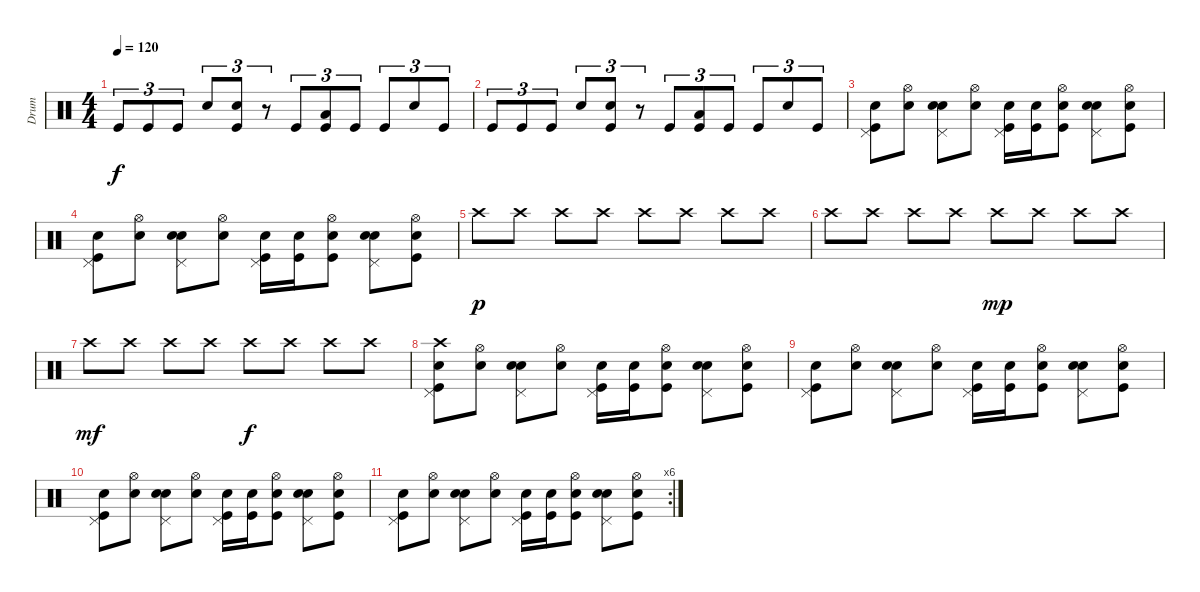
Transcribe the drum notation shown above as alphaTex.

\track ("Drum" "Drum") {instrument percussion}
\staff {score}
\articulation defaults
\ts (4 4)
\tempo 120
\clef neutral
\ks c "Kick (hit)".8{tu (3 2) dy f} "Kick (hit)".8{tu (3 2)} "Kick (hit)".8{tu (3 2)} "Electric Snare (hit)".8{tu (3 2)}
("Electric Snare (hit)" "Kick (hit)").8{tu (3 2)} r.8{tu (3 2)} "Kick (hit)".8{tu (3 2)} ("Low Tom (hit)" "Kick (hit)").8{tu (3 2)} "Kick (hit)".8{tu (3 2)} "Kick (hit)".8{tu (3 2)} "Electric Snare (hit)".8{tu (3 2)} "Kick (hit)".8{tu (3 2)} |
"Kick (hit)".8{tu (3 2)} "Kick (hit)".8{tu (3 2)} "Kick (hit)".8{tu (3 2)} "Electric Snare (hit)".8{tu (3 2)} ("Electric Snare (hit)" "Kick (hit)").8{tu (3 2)} r.8{tu (3 2)} "Kick (hit)".8{tu (3 2)} ("Low Tom (hit)" "Kick (hit)").8{tu (3 2)} "Kick (hit)".8{tu (3 2)} "Kick (hit)".8{tu (3 2)} "Electric Snare (hit)".8{tu (3 2)} "Kick (hit)".8{tu (3 2)} |
("Snare (hit)" "Pedal Hi-Hat (hit)" "Kick (hit)").8 ("Snare (hit)" "Hi-Hat (open)").8 ("Snare (hit)" "Pedal Hi-Hat (hit)" "Electric Snare (hit)").8 ("Snare (hit)" "Hi-Hat (open)").8 ("Snare (hit)" "Kick (hit)" "Pedal Hi-Hat (hit)").16 ("Snare (hit)" "Kick (hit)").16 ("Snare (hit)" "Kick (hit)" "Hi-Hat (open)").8 ("Snare (hit)" "Pedal Hi-Hat (hit)" "Electric Snare (hit)").8 ("Snare (hit)" "Kick (hit)" "Hi-Hat (open)").8 |
("Snare (hit)" "Pedal Hi-Hat (hit)" "Kick (hit)").8 ("Snare (hit)" "Hi-Hat (open)").8 ("Snare (hit)" "Pedal Hi-Hat (hit)" "Electric Snare (hit)").8 ("Snare (hit)" "Hi-Hat (open)").8 ("Snare (hit)" "Pedal Hi-Hat (hit)" "Kick (hit)").16 ("Snare (hit)" "Kick (hit)").16 ("Snare (hit)" "Hi-Hat (open)" "Kick (hit)").8 ("Snare (hit)" "Pedal Hi-Hat (hit)" "Electric Snare (hit)").8 ("Snare (hit)" "Hi-Hat (open)" "Kick (hit)").8 |
"Crash high (hit)".8{dy p} "Crash high (hit)".8 "Crash high (hit)".8 "Crash high (hit)".8 "Crash high (hit)".8 "Crash high (hit)".8 "Crash high (hit)".8 "Crash high (hit)".8 |
"Crash high (hit)".8 "Crash high (hit)".8 "Crash high (hit)".8 "Crash high (hit)".8 "Crash high (hit)".8{dy mp} "Crash high (hit)".8 "Crash high (hit)".8 "Crash high (hit)".8 |
"Crash high (hit)".8{dy mf} "Crash high (hit)".8 "Crash high (hit)".8 "Crash high (hit)".8 "Crash high (hit)".8{dy f} "Crash high (hit)".8 "Crash high (hit)".8 "Crash high (hit)".8 |
("Snare (hit)" "Pedal Hi-Hat (hit)" "Kick (hit)" "Crash high (hit)").8 ("Snare (hit)" "Hi-Hat (open)").8 ("Snare (hit)" "Pedal Hi-Hat (hit)" "Electric Snare (hit)").8 ("Snare (hit)" "Hi-Hat (open)").8 ("Snare (hit)" "Kick (hit)" "Pedal Hi-Hat (hit)").16 ("Snare (hit)" "Kick (hit)").16 ("Snare (hit)" "Kick (hit)" "Hi-Hat (open)").8 ("Snare (hit)" "Pedal Hi-Hat (hit)" "Electric Snare (hit)").8 ("Snare (hit)" "Kick (hit)" "Hi-Hat (open)").8 |
("Snare (hit)" "Pedal Hi-Hat (hit)" "Kick (hit)").8 ("Snare (hit)" "Hi-Hat (open)").8 ("Snare (hit)" "Pedal Hi-Hat (hit)" "Electric Snare (hit)").8 ("Snare (hit)" "Hi-Hat (open)").8 ("Snare (hit)" "Pedal Hi-Hat (hit)" "Kick (hit)").16 ("Snare (hit)" "Kick (hit)").16 ("Snare (hit)" "Hi-Hat (open)" "Kick (hit)").8 ("Snare (hit)" "Pedal Hi-Hat (hit)" "Electric Snare (hit)").8 ("Snare (hit)" "Hi-Hat (open)" "Kick (hit)").8 |
("Snare (hit)" "Pedal Hi-Hat (hit)" "Kick (hit)").8 ("Snare (hit)" "Hi-Hat (open)").8 ("Snare (hit)" "Pedal Hi-Hat (hit)" "Electric Snare (hit)").8 ("Snare (hit)" "Hi-Hat (open)").8 ("Snare (hit)" "Kick (hit)" "Pedal Hi-Hat (hit)").16 ("Snare (hit)" "Kick (hit)").16 ("Snare (hit)" "Kick (hit)" "Hi-Hat (open)").8 ("Snare (hit)" "Pedal Hi-Hat (hit)" "Electric Snare (hit)").8 ("Snare (hit)" "Kick (hit)" "Hi-Hat (open)").8 |
\rc 6
("Snare (hit)" "Pedal Hi-Hat (hit)" "Kick (hit)").8 ("Snare (hit)" "Hi-Hat (open)").8 ("Snare (hit)" "Pedal Hi-Hat (hit)" "Electric Snare (hit)").8 ("Snare (hit)" "Hi-Hat (open)").8 ("Snare (hit)" "Pedal Hi-Hat (hit)" "Kick (hit)").16 ("Snare (hit)" "Kick (hit)").16 ("Snare (hit)" "Hi-Hat (open)" "Kick (hit)").8 ("Snare (hit)" "Pedal Hi-Hat (hit)" "Electric Snare (hit)").8 ("Snare (hit)" "Hi-Hat (open)" "Kick (hit)").8
